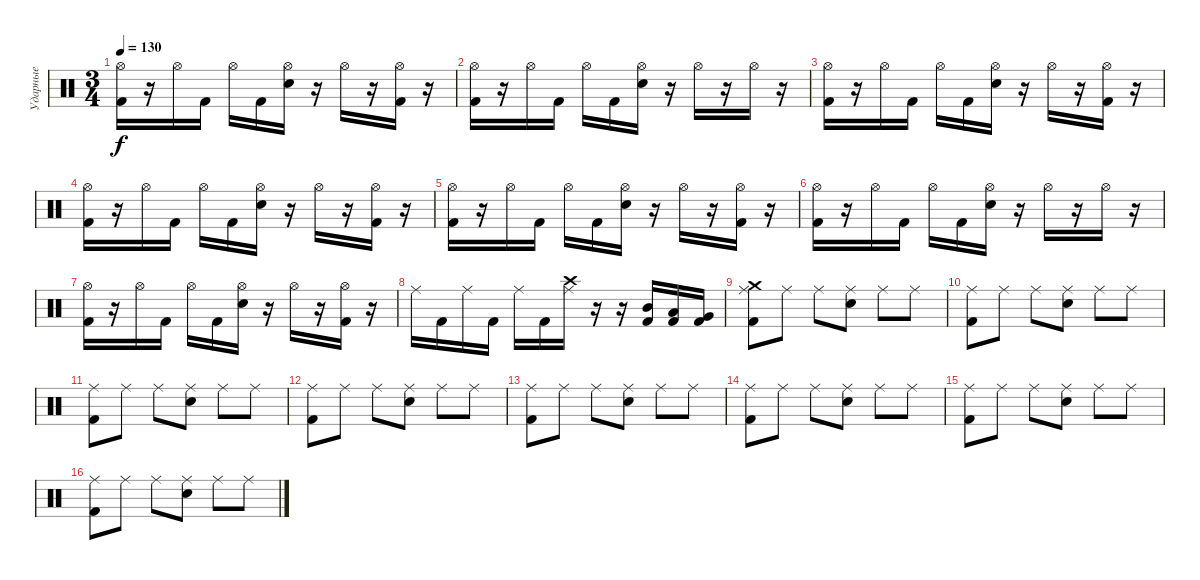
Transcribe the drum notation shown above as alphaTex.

\track ("Ударные" "Ударные") {instrument percussion}
\staff {score}
\articulation defaults
\ts (3 4)
\tempo 130
\clef neutral
\ks c
("Hi-Hat (open)" "Kick (hit) 2").16{dy f} r.16 "Hi-Hat (open)".16 "Kick (hit) 2".16 "Hi-Hat (open)".16 "Kick (hit) 2".16 ("Snare (hit) 2" "Hi-Hat (open)").16 r.16 "Hi-Hat (open)".16 r.16 ("Hi-Hat (open)" "Kick (hit) 2").16 r.16 |
("Hi-Hat (open)" "Kick (hit) 2").16 r.16 "Hi-Hat (open)".16 "Kick (hit) 2".16 "Hi-Hat (open)".16 "Kick (hit) 2".16 ("Snare (hit) 2" "Hi-Hat (open)").16 r.16 "Hi-Hat (open)".16 r.16 "Hi-Hat (open)".16 r.16 |
("Hi-Hat (open)" "Kick (hit) 2").16 r.16 "Hi-Hat (open)".16 "Kick (hit) 2".16 "Hi-Hat (open)".16 "Kick (hit) 2".16 ("Snare (hit) 2" "Hi-Hat (open)").16 r.16 "Hi-Hat (open)".16 r.16 ("Hi-Hat (open)" "Kick (hit) 2").16 r.16 |
("Hi-Hat (open)" "Kick (hit) 2").16 r.16 "Hi-Hat (open)".16 "Kick (hit) 2".16 "Hi-Hat (open)".16 "Kick (hit) 2".16 ("Snare (hit) 2" "Hi-Hat (open)").16 r.16 "Hi-Hat (open)".16 r.16 ("Hi-Hat (open)" "Kick (hit) 2").16 r.16 |
("Hi-Hat (open)" "Kick (hit) 2").16 r.16 "Hi-Hat (open)".16 "Kick (hit) 2".16 "Hi-Hat (open)".16 "Kick (hit) 2".16 ("Snare (hit) 2" "Hi-Hat (open)").16 r.16 "Hi-Hat (open)".16 r.16 ("Hi-Hat (open)" "Kick (hit) 2").16 r.16 |
("Hi-Hat (open)" "Kick (hit) 2").16 r.16 "Hi-Hat (open)".16 "Kick (hit) 2".16 "Hi-Hat (open)".16 "Kick (hit) 2".16 ("Snare (hit) 2" "Hi-Hat (open)").16 r.16 "Hi-Hat (open)".16 r.16 "Hi-Hat (open)".16 r.16 |
("Hi-Hat (open)" "Kick (hit) 2").16 r.16 "Hi-Hat (open)".16 "Kick (hit) 2".16 "Hi-Hat (open)".16 "Kick (hit) 2".16 ("Snare (hit) 2" "Hi-Hat (open)").16 r.16 "Hi-Hat (open)".16 r.16 ("Hi-Hat (open)" "Kick (hit) 2").16 r.16 |
"Ride (middle)".16 "Kick (hit) 2".16 "Ride (middle)".16 "Kick (hit) 2".16 "Ride (middle)".16 "Kick (hit) 2".16 ("Ride (middle)" "Crash high (hit)").16 r.16 r.16 ("Mid Tom (hit)" "Kick (hit) 2").16 ("Low Tom (hit)" "Kick (hit) 2").16 ("Very Low Tom (hit)" "Kick (hit) 2").16 |
("Ride (middle)" "Crash medium (hit)" "Kick (hit) 2").8 "Ride (middle)".8 "Ride (middle)".8 ("Ride (middle)" "Snare (hit) 2").8 "Ride (middle)".8 "Ride (middle)".8 |
("Ride (middle)" "Kick (hit) 2").8 "Ride (middle)".8 "Ride (middle)".8 ("Ride (middle)" "Snare (hit) 2").8 "Ride (middle)".8 "Ride (middle)".8 |
("Ride (middle)" "Kick (hit) 2").8 "Ride (middle)".8 "Ride (middle)".8 ("Ride (middle)" "Snare (hit) 2").8 "Ride (middle)".8 "Ride (middle)".8 |
("Ride (middle)" "Kick (hit) 2").8 "Ride (middle)".8 "Ride (middle)".8 ("Ride (middle)" "Snare (hit) 2").8 "Ride (middle)".8 "Ride (middle)".8 |
("Ride (middle)" "Kick (hit) 2").8 "Ride (middle)".8 "Ride (middle)".8 ("Ride (middle)" "Snare (hit) 2").8 "Ride (middle)".8 "Ride (middle)".8 |
("Ride (middle)" "Kick (hit) 2").8 "Ride (middle)".8 "Ride (middle)".8 ("Ride (middle)" "Snare (hit) 2").8 "Ride (middle)".8 "Ride (middle)".8 |
("Ride (middle)" "Kick (hit) 2").8 "Ride (middle)".8 "Ride (middle)".8 ("Ride (middle)" "Snare (hit) 2").8 "Ride (middle)".8 "Ride (middle)".8 |
("Ride (middle)" "Kick (hit) 2").8 "Ride (middle)".8 "Ride (middle)".8 ("Ride (middle)" "Snare (hit) 2").8 "Ride (middle)".8 "Ride (middle)".8
